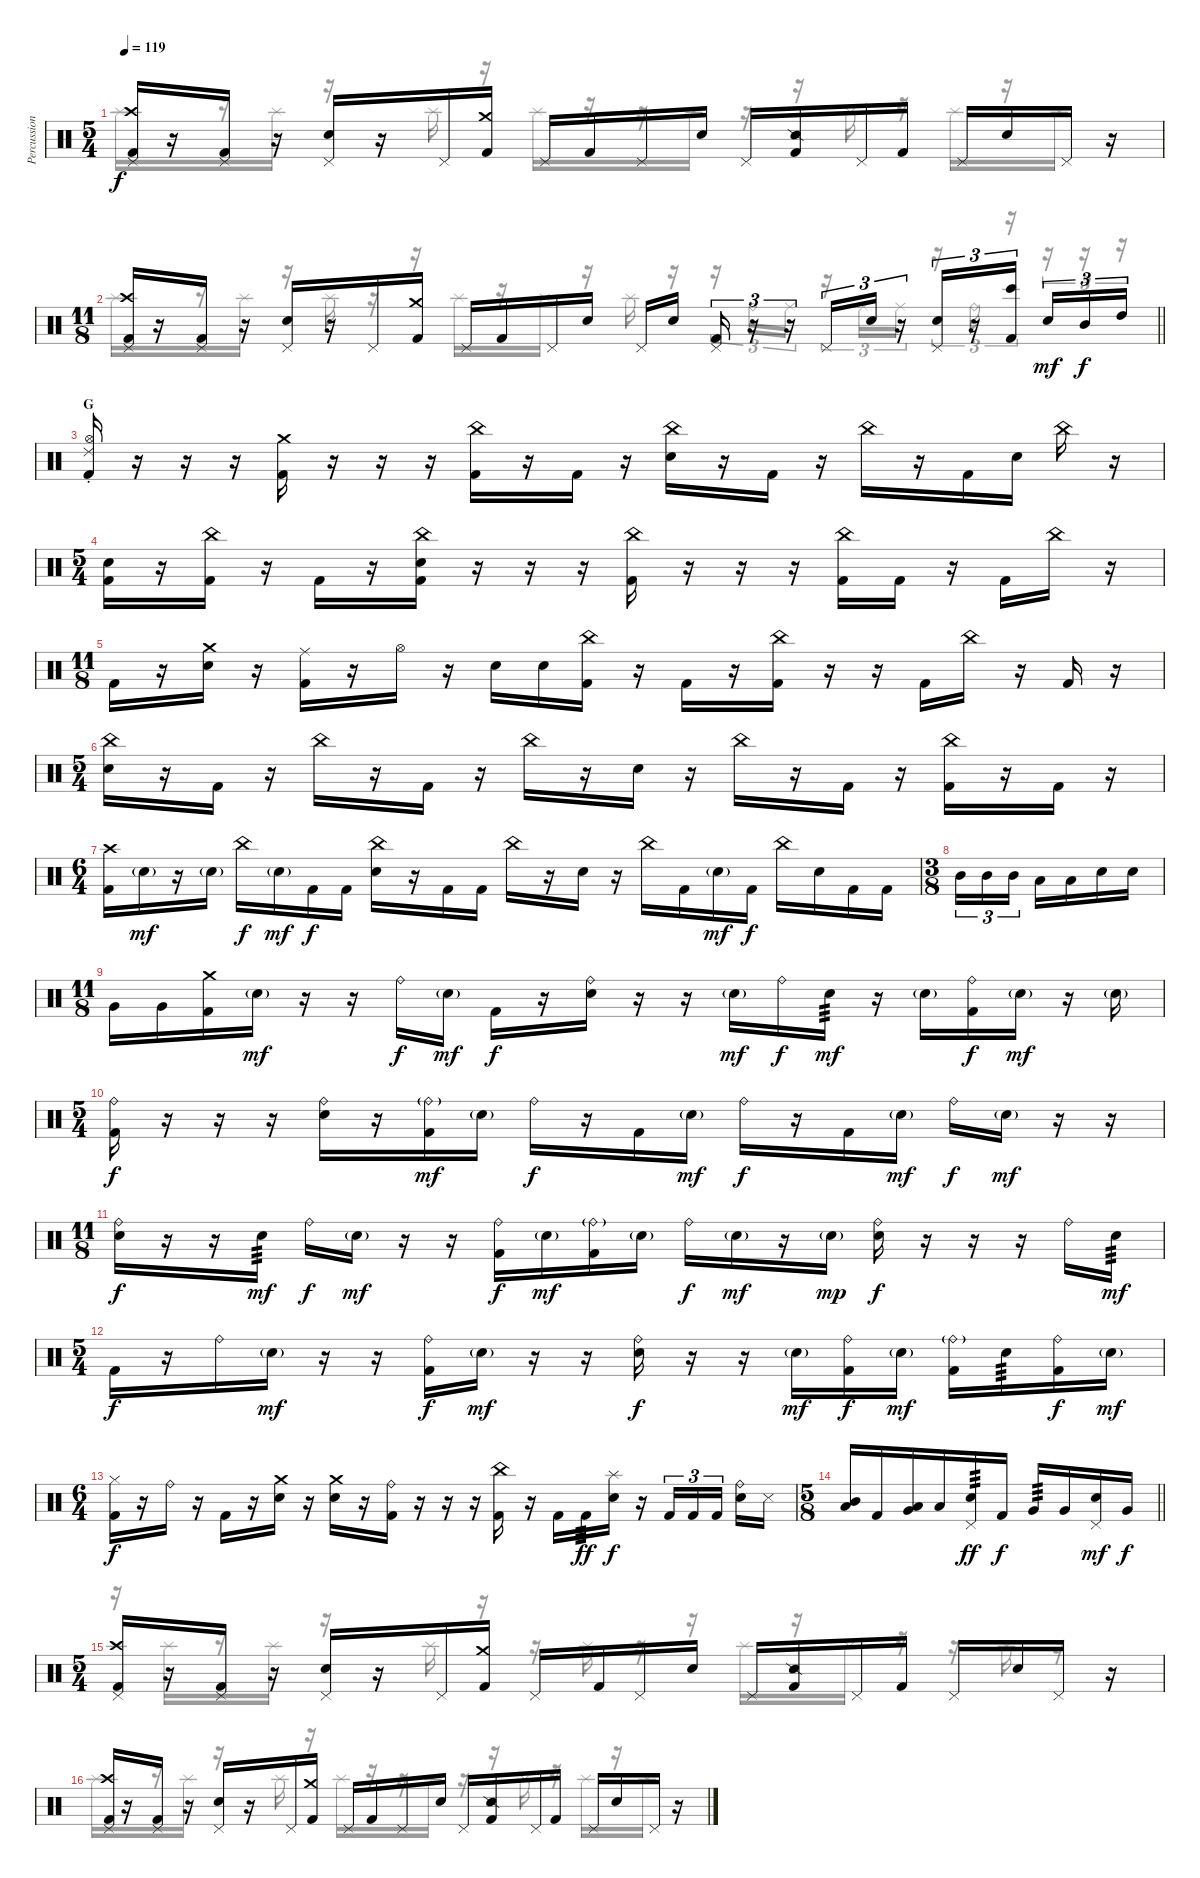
\track ("Percussion" "Percussion") {instrument percussion}
\staff {score}
\articulation defaults
\voice
\ts (5 4)
\tempo 119
\clef neutral
\ks c
("Crash high (hit)" "Pedal Hi-Hat (hit)" "Kick (hit) 2").16{dy f} r.16 ("Pedal Hi-Hat (hit)" "Kick (hit) 2").16 r.16 ("Pedal Hi-Hat (hit)" "Snare (hit) 2").16 r.16 "Pedal Hi-Hat (hit)".16 ("Crash medium (hit)" "Kick (hit) 2").16 "Pedal Hi-Hat (hit)".16 "Kick (hit) 2".16 "Pedal Hi-Hat (hit)".16 "Snare (hit) 2".16 "Pedal Hi-Hat (hit)".16 ("Snare (side stick) 2" "Kick (hit) 2").16 "Pedal Hi-Hat (hit)".16 "Kick (hit) 2".16 "Pedal Hi-Hat (hit)".16 "Snare (hit) 2".16 "Pedal Hi-Hat (hit)".16 r.16 |
\ts (11 8)
\barLineRight lightlight
("Crash high (hit)" "Pedal Hi-Hat (hit)" "Kick (hit) 2").16 r.16 ("Pedal Hi-Hat (hit)" "Kick (hit) 2").16 r.16 ("Pedal Hi-Hat (hit)" "Snare (hit) 2").16 r.16 "Pedal Hi-Hat (hit)".16 ("Crash medium (hit)" "Kick (hit) 2").16 "Pedal Hi-Hat (hit)".16 "Kick (hit) 2".16 "Pedal Hi-Hat (hit)".16 "Snare (hit) 2".16 "Pedal Hi-Hat (hit)".16 "Snare (hit)".16 ("Pedal Hi-Hat (hit)" "Kick (hit) 2").16{tu (3 2)} r.16{tu (3 2)} r.16{tu (3 2)} "Pedal Hi-Hat (hit)".16{tu (3 2)} "Snare (hit) 2".16{tu (3 2)} r.16{tu (3 2)} ("Pedal Hi-Hat (hit)" "Snare (hit) 2").16{tu (3 2)} r.16{tu (3 2)} ("Bongo High (hit)" "Kick (hit) 2").16{tu (3 2)} "Snare (hit) 2".16{tu (3 2) dy mf} "Mid Tom (hit)".16{tu (3 2) dy f} "High Tom (hit)".16{tu (3 2)} |
\section ("" "G")
("Hi-Hat (open)" "Ride (choke) 2" "Kick (hit) 2").16 r.16 r.16 r.16 ("Crash medium (hit)" "Kick (hit) 2").16 r.16 r.16 r.16 ("China (hit)" "Kick (hit) 2").16 r.16 "Kick (hit) 2".16 r.16 ("China (hit)" "Snare (hit) 2").16 r.16 "Kick (hit) 2".16 r.16 "China (hit)".16 r.16 "Kick (hit) 2".16 "Snare (hit) 2".16 "China (hit)".16 r.16 |
\ts (5 4)
("Snare (hit) 2" "Kick (hit) 2").16 r.16 ("China (hit)" "Kick (hit) 2").16 r.16 "Kick (hit) 2".16 r.16 ("China (hit)" "Snare (hit) 2" "Kick (hit) 2").16 r.16 r.16 r.16 ("China (hit)" "Kick (hit) 2").16 r.16 r.16 r.16 ("China (hit)" "Kick (hit) 2").16 "Kick (hit) 2".16 r.16 "Kick (hit) 2".16 "China (hit)".16 r.16 |
\ts (11 8)
"Kick (hit) 2".16 r.16 ("Crash medium (hit)" "Snare (hit) 2").16 r.16 ("Ride (middle)" "Kick (hit) 2").16 r.16 "Hi-Hat (open)".16 r.16 "Snare (hit) 2".16 "Snare (hit) 2".16 ("China (hit)" "Kick (hit) 2").16 r.16 "Kick (hit) 2".16 r.16 ("China (hit)" "Kick (hit) 2").16 r.16 r.16 "Kick (hit) 2".16 "China (hit)".16 r.16 "Kick (hit) 2".16 r.16 |
\ts (5 4)
("China (hit)" "Snare (hit) 2").16 r.16 "Kick (hit) 2".16 r.16 "China (hit)".16 r.16 "Kick (hit) 2".16 r.16 "China (hit)".16 r.16 "Snare (hit) 2".16 r.16 "China (hit)".16 r.16 "Kick (hit) 2".16 r.16 ("China (hit)" "Kick (hit) 2").16 r.16 "Kick (hit) 2".16 r.16 |
\ts (6 4)
("Crash high (hit)" "Kick (hit) 2").16 "Snare (hit) 2"{g}.16{dy mf} r.16 "Snare (hit) 2"{g}.16 "China (hit)".16{dy f} "Snare (hit) 2"{g}.16{dy mf} "Kick (hit) 2".16{dy f} "Kick (hit) 2".16 ("China (hit)" "Snare (hit) 2").16 r.16 "Kick (hit) 2".16 "Kick (hit) 2".16 "China (hit)".16 r.16 "Snare (hit) 2".16 r.16 "China (hit)".16 "Kick (hit) 2".16 "Snare (hit) 2"{g}.16{dy mf} "Kick (hit) 2".16{dy f} "China (hit)".16 "Snare (hit) 2".16 "Kick (hit) 2".16 "Kick (hit) 2".16 |
\ts (3 8)
"Mid Tom (hit)".16{tu (3 2)} "Mid Tom (hit)".16{tu (3 2)} "Mid Tom (hit)".16{tu (3 2)} "Low Tom (hit)".16 "Low Tom (hit)".16 "Snare (hit) 2".16 "Snare (hit) 2".16 |
\ts (11 8)
"Very Low Tom (hit)".16 "Very Low Tom (hit)".16 ("Crash medium (hit)" "Kick (hit) 2").16 "Snare (hit) 2"{g}.16{dy mf} r.16 r.16 "Ride (bell)".16{dy f} "Snare (hit) 2"{g}.16{dy mf} "Kick (hit) 2".16{dy f} r.16 ("Ride (bell)" "Snare (hit) 2").16 r.16 r.16 "Snare (hit) 2"{g}.16{dy mf} "Ride (bell)".16{dy f} "Snare (hit) 2".16{tp 3 dy mf} r.16 "Snare (hit) 2"{g}.16 ("Ride (bell)" "Kick (hit) 2").16{dy f} "Snare (hit) 2"{g}.16{dy mf} r.16 "Snare (hit) 2"{g}.16 |
\ts (5 4)
("Ride (bell)" "Kick (hit) 2").16{dy f} r.16 r.16 r.16 ("Ride (bell)" "Snare (hit) 2").16 r.16 ("Ride (bell)"{g} "Kick (hit) 2").16{dy mf} "Snare (hit) 2"{g}.16 "Ride (bell)".16{dy f} r.16 "Kick (hit) 2".16 "Snare (hit) 2"{g}.16{dy mf} "Ride (bell)".16{dy f} r.16 "Kick (hit) 2".16 "Snare (hit) 2"{g}.16{dy mf} "Ride (bell)".16{dy f} "Snare (hit) 2"{g}.16{dy mf} r.16 r.16 |
\ts (11 8)
("Ride (bell)" "Snare (hit) 2").16{dy f} r.16 r.16 "Snare (hit) 2".16{tp 3 dy mf} "Ride (bell)".16{dy f} "Snare (hit) 2"{g}.16{dy mf} r.16 r.16 ("Ride (bell)" "Kick (hit) 2").16{dy f} "Snare (hit) 2"{g}.16{dy mf} ("Ride (bell)"{g} "Kick (hit) 2").16 "Snare (hit) 2"{g}.16 "Ride (bell)".16{dy f} "Snare (hit) 2"{g}.16{dy mf} r.16 "Snare (hit) 2"{g}.16{dy mp} ("Ride (bell)" "Snare (hit) 2").16{dy f} r.16 r.16 r.16 "Ride (bell)".16 "Snare (hit) 2".16{tp 3 dy mf} |
\ts (5 4)
"Kick (hit) 2".16{dy f} r.16 "Ride (bell)".16 "Snare (hit) 2"{g}.16{dy mf} r.16 r.16 ("Ride (bell)" "Kick (hit) 2").16{dy f} "Snare (hit) 2"{g}.16{dy mf} r.16 r.16 ("Ride (bell)" "Snare (hit) 2").16{dy f} r.16 r.16 "Snare (hit) 2"{g}.16{dy mf} ("Ride (bell)" "Kick (hit) 2").16{dy f} "Snare (hit) 2"{g}.16{dy mf} ("Ride (bell)"{g} "Kick (hit) 2").16 "Snare (hit) 2".16{tp 3} ("Ride (bell)" "Kick (hit) 2").16{dy f} "Snare (hit) 2"{g}.16{dy mf} |
\ts (6 4)
("Hi-Hat (closed)" "Kick (hit) 2").16{dy f} r.16 "Ride (bell)".16 r.16 "Kick (hit) 2".16 r.16 ("Crash medium (hit)" "Snare (hit) 2").16 r.16 ("Crash medium (hit)" "Snare (hit) 2").16 r.16 ("Ride (bell)" "Kick (hit) 2").16 r.16 r.16 r.16 ("China (hit)" "Kick (hit) 2").16 r.16 "Kick (hit) 2".16 "Kick (hit) 2".16{tp 3 dy ff} ("Splash (hit)" "Snare (hit) 2").16{dy f} r.16 "Kick (hit) 2".16{tu (3 2)} "Kick (hit) 2".16{tu (3 2)} "Kick (hit) 2".16{tu (3 2) beam splitsecondary} ("Ride (bell)" "Snare (hit) 2").16 "Metronome (hit)".16 |
\ts (5 8)
\barLineRight lightlight
("Mid Tom (hit)" "Low Tom (hit)").16{bu 60} "Kick (hit) 2".16 ("Low Tom (hit)" "Very Low Tom (hit)").16{bu 60} "Low Tom (hit)".16 ("Pedal Hi-Hat (hit)" "Snare (hit) 2").16{tp 3 dy ff} "Kick (hit) 2".16{dy f} "Very Low Tom (hit)".16{tp 3} "Very Low Tom (hit)".16 ("Pedal Hi-Hat (hit)" "Snare (hit) 2").16{dy mf} "Very Low Tom (hit)".16{dy f} |
\ts (5 4)
("Crash high (hit)" "Pedal Hi-Hat (hit)" "Kick (hit) 2").16 r.16 ("Pedal Hi-Hat (hit)" "Kick (hit) 2").16 r.16 ("Pedal Hi-Hat (hit)" "Snare (hit) 2").16 r.16 "Pedal Hi-Hat (hit)".16 ("Crash medium (hit)" "Kick (hit) 2").16 "Pedal Hi-Hat (hit)".16 "Kick (hit) 2".16 "Pedal Hi-Hat (hit)".16 "Snare (hit) 2".16 "Pedal Hi-Hat (hit)".16 ("Snare (side stick) 2" "Kick (hit) 2").16 "Pedal Hi-Hat (hit)".16 "Kick (hit) 2".16 "Pedal Hi-Hat (hit)".16 "Snare (hit) 2".16 "Pedal Hi-Hat (hit)".16 r.16 |
("Crash high (hit)" "Pedal Hi-Hat (hit)" "Kick (hit) 2").16 r.16 ("Pedal Hi-Hat (hit)" "Kick (hit) 2").16 r.16 ("Pedal Hi-Hat (hit)" "Snare (hit) 2").16 r.16 "Pedal Hi-Hat (hit)".16 ("Crash medium (hit)" "Kick (hit) 2").16 "Pedal Hi-Hat (hit)".16 "Kick (hit) 2".16 "Pedal Hi-Hat (hit)".16 "Snare (hit) 2".16 "Pedal Hi-Hat (hit)".16 ("Snare (side stick) 2" "Kick (hit) 2").16 "Pedal Hi-Hat (hit)".16 "Kick (hit) 2".16 "Pedal Hi-Hat (hit)".16 "Snare (hit) 2".16 "Pedal Hi-Hat (hit)".16 r.16
\voice
\clef neutral
\ottava regular
\simile none
\ks c "Splash (hit)".16{dy f}
r.16 r.16 "Splash (hit)".16 r.16 r.16 "Splash (hit)".16 r.16 "Splash (hit)".16 r.16 r.16 "Splash (hit)".16 r.16 r.16 "Splash (hit)".16 r.16 "Splash (hit)".16 r.16 "Splash (hit)".16 r.16 |
\barLineRight lightlight "Splash (hit)".16
r.16 r.16 "Splash (hit)".16 r.16 "Splash (hit)".16 r.16 r.16 "Splash (hit)".16 r.16 "Splash (hit)".16 r.16 "Splash (hit)".16 r.16 r.16{tu (3 2)} "Ride (bell)".16{tu (3 2)} "Ride (middle)".16{tu (3 2)} r.16{tu (3 2)} "Ride (middle)".16{tu (3 2)} "Ride (middle)".16{tu (3 2)} r.16{tu (3 2)} "Ride (bell)".16{tu (3 2)} r.16{tu (3 2)} r.16{tu (3 2)} r.16{tu (3 2)} r.16{tu (3 2)} |
|
|
|
|
|
|
|
|
|
|
|
\barLineRight lightlight
|
r.16 "Splash (hit)".16 r.16 "Splash (hit)".16 r.16 r.16 "Splash (hit)".16 r.16 r.16 "Splash (hit)".16 r.16 r.16 "Splash (hit)".16 r.16 "Splash (hit)".16 r.16 r.16 "Splash (hit)".16 r.16 r.16 |
"Splash (hit)".16 r.16 r.16 "Splash (hit)".16 r.16 r.16 "Splash (hit)".16 r.16 "Splash (hit)".16 r.16 r.16 "Splash (hit)".16 r.16 r.16 "Splash (hit)".16 r.16 "Splash (hit)".16 r.16 "Splash (hit)".16 r.16
